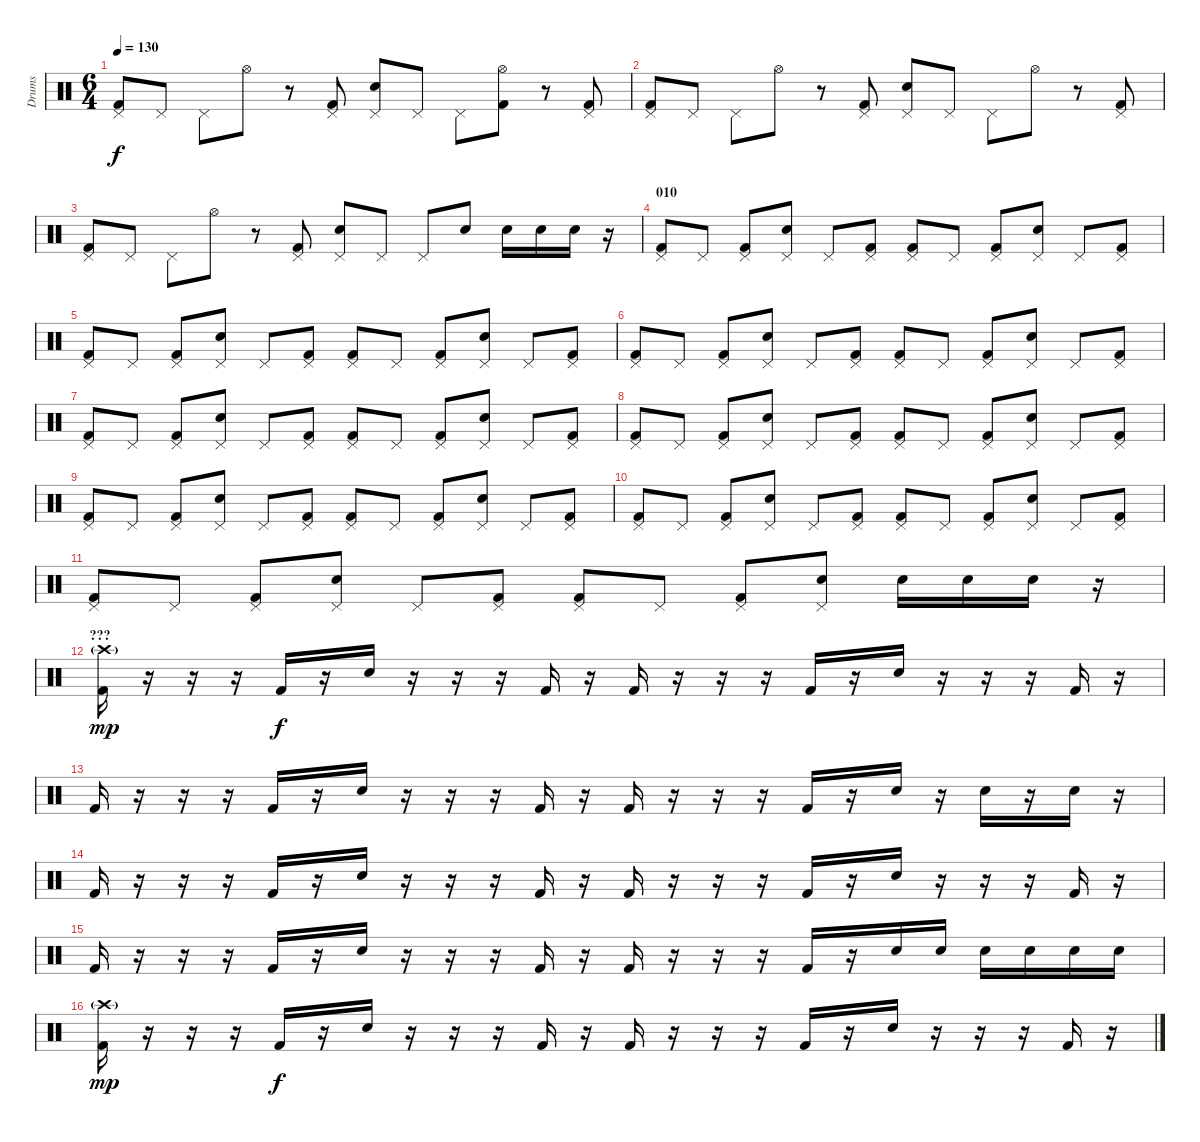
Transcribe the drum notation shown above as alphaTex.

\track ("Drums" "Drums") {instrument percussion}
\staff {score}
\articulation defaults
\ts (6 4)
\tempo 130
\clef neutral
\ks c
("Kick (hit) 2" "Pedal Hi-Hat (hit)").8{dy f} "Pedal Hi-Hat (hit)".8 "Pedal Hi-Hat (hit)".8 "Hi-Hat (open)".8 r.8 ("Kick (hit) 2" "Pedal Hi-Hat (hit)").8 ("Electric Snare (hit)" "Pedal Hi-Hat (hit)").8 "Pedal Hi-Hat (hit)".8 "Pedal Hi-Hat (hit)".8 ("Kick (hit) 2" "Hi-Hat (open)").8 r.8 ("Kick (hit) 2" "Pedal Hi-Hat (hit)").8 |
("Kick (hit) 2" "Pedal Hi-Hat (hit)").8 "Pedal Hi-Hat (hit)".8 "Pedal Hi-Hat (hit)".8 "Hi-Hat (open)".8 r.8 ("Kick (hit) 2" "Pedal Hi-Hat (hit)").8 ("Electric Snare (hit)" "Pedal Hi-Hat (hit)").8 "Pedal Hi-Hat (hit)".8 "Pedal Hi-Hat (hit)".8 "Hi-Hat (open)".8 r.8 ("Kick (hit) 2" "Pedal Hi-Hat (hit)").8 |
("Kick (hit) 2" "Pedal Hi-Hat (hit)").8 "Pedal Hi-Hat (hit)".8 "Pedal Hi-Hat (hit)".8 "Hi-Hat (open)".8 r.8 ("Kick (hit) 2" "Pedal Hi-Hat (hit)").8 ("Electric Snare (hit)" "Pedal Hi-Hat (hit)").8 "Pedal Hi-Hat (hit)".8 "Pedal Hi-Hat (hit)".8 "Electric Snare (hit)".8 "Electric Snare (hit)".16 "Electric Snare (hit)".16 "Electric Snare (hit)".16 r.16 |
\section ("" "010")
("Kick (hit) 2" "Pedal Hi-Hat (hit)").8 "Pedal Hi-Hat (hit)".8 ("Kick (hit) 2" "Pedal Hi-Hat (hit)").8 ("Electric Snare (hit)" "Pedal Hi-Hat (hit)").8 "Pedal Hi-Hat (hit)".8 ("Kick (hit) 2" "Pedal Hi-Hat (hit)").8 ("Kick (hit) 2" "Pedal Hi-Hat (hit)").8 "Pedal Hi-Hat (hit)".8 ("Kick (hit) 2" "Pedal Hi-Hat (hit)").8 ("Electric Snare (hit)" "Pedal Hi-Hat (hit)").8 "Pedal Hi-Hat (hit)".8 ("Kick (hit) 2" "Pedal Hi-Hat (hit)").8 |
("Kick (hit) 2" "Pedal Hi-Hat (hit)").8 "Pedal Hi-Hat (hit)".8 ("Kick (hit) 2" "Pedal Hi-Hat (hit)").8 ("Electric Snare (hit)" "Pedal Hi-Hat (hit)").8 "Pedal Hi-Hat (hit)".8 ("Kick (hit) 2" "Pedal Hi-Hat (hit)").8 ("Kick (hit) 2" "Pedal Hi-Hat (hit)").8 "Pedal Hi-Hat (hit)".8 ("Kick (hit) 2" "Pedal Hi-Hat (hit)").8 ("Electric Snare (hit)" "Pedal Hi-Hat (hit)").8 "Pedal Hi-Hat (hit)".8 ("Kick (hit) 2" "Pedal Hi-Hat (hit)").8 |
("Kick (hit) 2" "Pedal Hi-Hat (hit)").8 "Pedal Hi-Hat (hit)".8 ("Kick (hit) 2" "Pedal Hi-Hat (hit)").8 ("Electric Snare (hit)" "Pedal Hi-Hat (hit)").8 "Pedal Hi-Hat (hit)".8 ("Kick (hit) 2" "Pedal Hi-Hat (hit)").8 ("Kick (hit) 2" "Pedal Hi-Hat (hit)").8 "Pedal Hi-Hat (hit)".8 ("Kick (hit) 2" "Pedal Hi-Hat (hit)").8 ("Electric Snare (hit)" "Pedal Hi-Hat (hit)").8 "Pedal Hi-Hat (hit)".8 ("Kick (hit) 2" "Pedal Hi-Hat (hit)").8 |
("Kick (hit) 2" "Pedal Hi-Hat (hit)").8 "Pedal Hi-Hat (hit)".8 ("Kick (hit) 2" "Pedal Hi-Hat (hit)").8 ("Electric Snare (hit)" "Pedal Hi-Hat (hit)").8 "Pedal Hi-Hat (hit)".8 ("Kick (hit) 2" "Pedal Hi-Hat (hit)").8 ("Kick (hit) 2" "Pedal Hi-Hat (hit)").8 "Pedal Hi-Hat (hit)".8 ("Kick (hit) 2" "Pedal Hi-Hat (hit)").8 ("Electric Snare (hit)" "Pedal Hi-Hat (hit)").8 "Pedal Hi-Hat (hit)".8 ("Kick (hit) 2" "Pedal Hi-Hat (hit)").8 |
("Kick (hit) 2" "Pedal Hi-Hat (hit)").8 "Pedal Hi-Hat (hit)".8 ("Kick (hit) 2" "Pedal Hi-Hat (hit)").8 ("Electric Snare (hit)" "Pedal Hi-Hat (hit)").8 "Pedal Hi-Hat (hit)".8 ("Kick (hit) 2" "Pedal Hi-Hat (hit)").8 ("Kick (hit) 2" "Pedal Hi-Hat (hit)").8 "Pedal Hi-Hat (hit)".8 ("Kick (hit) 2" "Pedal Hi-Hat (hit)").8 ("Electric Snare (hit)" "Pedal Hi-Hat (hit)").8 "Pedal Hi-Hat (hit)".8 ("Kick (hit) 2" "Pedal Hi-Hat (hit)").8 |
("Kick (hit) 2" "Pedal Hi-Hat (hit)").8 "Pedal Hi-Hat (hit)".8 ("Kick (hit) 2" "Pedal Hi-Hat (hit)").8 ("Electric Snare (hit)" "Pedal Hi-Hat (hit)").8 "Pedal Hi-Hat (hit)".8 ("Kick (hit) 2" "Pedal Hi-Hat (hit)").8 ("Kick (hit) 2" "Pedal Hi-Hat (hit)").8 "Pedal Hi-Hat (hit)".8 ("Kick (hit) 2" "Pedal Hi-Hat (hit)").8 ("Electric Snare (hit)" "Pedal Hi-Hat (hit)").8 "Pedal Hi-Hat (hit)".8 ("Kick (hit) 2" "Pedal Hi-Hat (hit)").8 |
("Kick (hit) 2" "Pedal Hi-Hat (hit)").8 "Pedal Hi-Hat (hit)".8 ("Kick (hit) 2" "Pedal Hi-Hat (hit)").8 ("Electric Snare (hit)" "Pedal Hi-Hat (hit)").8 "Pedal Hi-Hat (hit)".8 ("Kick (hit) 2" "Pedal Hi-Hat (hit)").8 ("Kick (hit) 2" "Pedal Hi-Hat (hit)").8 "Pedal Hi-Hat (hit)".8 ("Kick (hit) 2" "Pedal Hi-Hat (hit)").8 ("Electric Snare (hit)" "Pedal Hi-Hat (hit)").8 "Pedal Hi-Hat (hit)".8 ("Kick (hit) 2" "Pedal Hi-Hat (hit)").8 |
("Kick (hit) 2" "Pedal Hi-Hat (hit)").8 "Pedal Hi-Hat (hit)".8 ("Kick (hit) 2" "Pedal Hi-Hat (hit)").8 ("Electric Snare (hit)" "Pedal Hi-Hat (hit)").8 "Pedal Hi-Hat (hit)".8 ("Kick (hit) 2" "Pedal Hi-Hat (hit)").8 ("Kick (hit) 2" "Pedal Hi-Hat (hit)").8 "Pedal Hi-Hat (hit)".8 ("Kick (hit) 2" "Pedal Hi-Hat (hit)").8 ("Electric Snare (hit)" "Pedal Hi-Hat (hit)").8 "Electric Snare (hit)".16 "Electric Snare (hit)".16 "Electric Snare (hit)".16 r.16 |
\section ("" "???")
("Kick (hit) 2" "Crash high (hit)"{g}).16{dy mp} r.16 r.16 r.16 "Kick (hit) 2".16{dy f} r.16 "Electric Snare (hit)".16 r.16 r.16 r.16 "Kick (hit) 2".16 r.16 "Kick (hit) 2".16 r.16 r.16 r.16 "Kick (hit) 2".16 r.16 "Electric Snare (hit)".16 r.16 r.16 r.16 "Kick (hit) 2".16 r.16 |
"Kick (hit) 2".16 r.16 r.16 r.16 "Kick (hit) 2".16 r.16 "Electric Snare (hit)".16 r.16 r.16 r.16 "Kick (hit) 2".16 r.16 "Kick (hit) 2".16 r.16 r.16 r.16 "Kick (hit) 2".16 r.16 "Electric Snare (hit)".16 r.16 "Electric Snare (hit)".16 r.16 "Electric Snare (hit)".16 r.16 |
"Kick (hit) 2".16 r.16 r.16 r.16 "Kick (hit) 2".16 r.16 "Electric Snare (hit)".16 r.16 r.16 r.16 "Kick (hit) 2".16 r.16 "Kick (hit) 2".16 r.16 r.16 r.16 "Kick (hit) 2".16 r.16 "Electric Snare (hit)".16 r.16 r.16 r.16 "Kick (hit) 2".16 r.16 |
"Kick (hit) 2".16 r.16 r.16 r.16 "Kick (hit) 2".16 r.16 "Electric Snare (hit)".16 r.16 r.16 r.16 "Kick (hit) 2".16 r.16 "Kick (hit) 2".16 r.16 r.16 r.16 "Kick (hit) 2".16 r.16 "Electric Snare (hit)".16 "Electric Snare (hit)".16 "Electric Snare (hit)".16 "Electric Snare (hit)".16 "Electric Snare (hit)".16 "Electric Snare (hit)".16 |
("Kick (hit) 2" "Crash high (hit)"{g}).16{dy mp} r.16 r.16 r.16 "Kick (hit) 2".16{dy f} r.16 "Electric Snare (hit)".16 r.16 r.16 r.16 "Kick (hit) 2".16 r.16 "Kick (hit) 2".16 r.16 r.16 r.16 "Kick (hit) 2".16 r.16 "Electric Snare (hit)".16 r.16 r.16 r.16 "Kick (hit) 2".16 r.16
